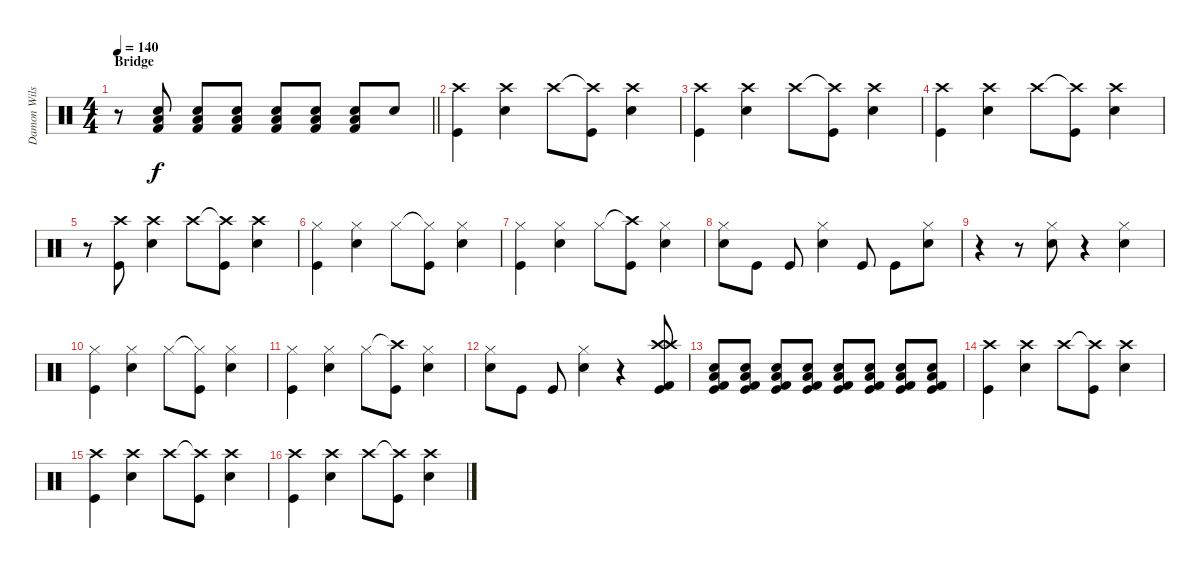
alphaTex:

\track ("Damon Wilson" "Damon Wils") {instrument percussion}
\staff {score}
\articulation defaults
\ts (4 4)
\section ("" "Bridge")
\tempo 140
\clef neutral
\barLineRight lightlight
\ks c
r.8{dy f} ("Snare (hit) 2" "Low Floor Tom (hit)" "Kick (hit) 2").8 ("Snare (hit) 2" "Low Floor Tom (hit)" "Kick (hit) 2").8 ("Snare (hit) 2" "Low Floor Tom (hit)" "Kick (hit) 2").8 ("Snare (hit) 2" "Low Floor Tom (hit)" "Kick (hit) 2").8 ("Snare (hit) 2" "Low Floor Tom (hit)" "Kick (hit) 2").8 ("Snare (hit) 2" "Low Floor Tom (hit)" "Kick (hit) 2").8 "Snare (hit) 2".8 |
("Crash high (hit)" "Kick (hit)").4 ("Crash high (hit)" "Snare (hit) 2").4 "Crash high (hit)".8 ("Crash high (hit)"{t} "Kick (hit)").8 ("Crash high (hit)" "Snare (hit) 2").4 |
("Crash high (hit)" "Kick (hit)").4 ("Crash high (hit)" "Snare (hit) 2").4 "Crash high (hit)".8 ("Crash high (hit)"{t} "Kick (hit)").8 ("Crash high (hit)" "Snare (hit) 2").4 |
("Crash high (hit)" "Kick (hit)").4 ("Crash high (hit)" "Snare (hit) 2").4 "Crash high (hit)".8 ("Crash high (hit)"{t} "Kick (hit)").8 ("Crash high (hit)" "Snare (hit) 2").4 |
r.8 ("Crash high (hit)" "Kick (hit)").8 ("Crash high (hit)" "Snare (hit) 2").4 "Crash high (hit)".8 ("Crash high (hit)"{t} "Kick (hit)").8 ("Crash high (hit)" "Snare (hit) 2").4 |
("Hi-Hat (closed)" "Kick (hit)").4 ("Hi-Hat (closed)" "Snare (hit) 2").4 "Hi-Hat (closed)".8 ("Hi-Hat (closed)"{t} "Kick (hit)").8 ("Hi-Hat (closed)" "Snare (hit) 2").4 |
("Hi-Hat (closed)" "Kick (hit)").4 ("Hi-Hat (closed)" "Snare (hit) 2").4 "Hi-Hat (closed)".8 ("Crash high (hit)"{t} "Kick (hit)").8 ("Hi-Hat (closed)" "Snare (hit) 2").4 |
("Hi-Hat (closed)" "Snare (hit) 2").8 "Kick (hit)".8 "Kick (hit)".8 ("Hi-Hat (closed)" "Snare (hit) 2").4 "Kick (hit)".8 "Kick (hit)".8 ("Hi-Hat (closed)" "Snare (hit) 2").8 |
r.4 r.8 ("Hi-Hat (closed)" "Snare (hit) 2").8 r.4 ("Hi-Hat (closed)" "Snare (hit) 2").4 |
("Hi-Hat (closed)" "Kick (hit)").4 ("Hi-Hat (closed)" "Snare (hit) 2").4 "Hi-Hat (closed)".8 ("Hi-Hat (closed)"{t} "Kick (hit)").8 ("Hi-Hat (closed)" "Snare (hit) 2").4 |
("Hi-Hat (closed)" "Kick (hit)").4 ("Hi-Hat (closed)" "Snare (hit) 2").4 "Hi-Hat (closed)".8 ("Crash high (hit)"{t} "Kick (hit)").8 ("Hi-Hat (closed)" "Snare (hit) 2").4 |
("Hi-Hat (closed)" "Snare (hit) 2").8 "Kick (hit)".8 "Kick (hit)".8 ("Hi-Hat (closed)" "Snare (hit) 2").4 r.4 ("Crash high (hit)" "Crash high (hit)" "Kick (hit) 2" "Kick (hit)").8 |
("Snare (hit) 2" "Kick (hit)" "Low Floor Tom (hit)" "Kick (hit) 2").8 ("Snare (hit) 2" "Kick (hit)" "Low Floor Tom (hit)" "Kick (hit) 2").8 ("Snare (hit) 2" "Kick (hit)" "Low Floor Tom (hit)" "Kick (hit) 2").8 ("Snare (hit) 2" "Kick (hit)" "Low Floor Tom (hit)" "Kick (hit) 2").8 ("Snare (hit) 2" "Kick (hit)" "Low Floor Tom (hit)" "Kick (hit) 2").8 ("Snare (hit) 2" "Kick (hit)" "Low Floor Tom (hit)" "Kick (hit) 2").8 ("Snare (hit) 2" "Kick (hit)" "Low Floor Tom (hit)" "Kick (hit) 2").8 ("Snare (hit) 2" "Kick (hit)" "Low Floor Tom (hit)" "Kick (hit) 2").8 |
("Crash high (hit)" "Kick (hit)").4 ("Crash high (hit)" "Snare (hit) 2").4 "Crash high (hit)".8 ("Crash high (hit)"{t} "Kick (hit)").8 ("Crash high (hit)" "Snare (hit) 2").4 |
("Crash high (hit)" "Kick (hit)").4 ("Crash high (hit)" "Snare (hit) 2").4 "Crash high (hit)".8 ("Crash high (hit)"{t} "Kick (hit)").8 ("Crash high (hit)" "Snare (hit) 2").4 |
("Crash high (hit)" "Kick (hit)").4 ("Crash high (hit)" "Snare (hit) 2").4 "Crash high (hit)".8 ("Crash high (hit)"{t} "Kick (hit)").8 ("Crash high (hit)" "Snare (hit) 2").4
